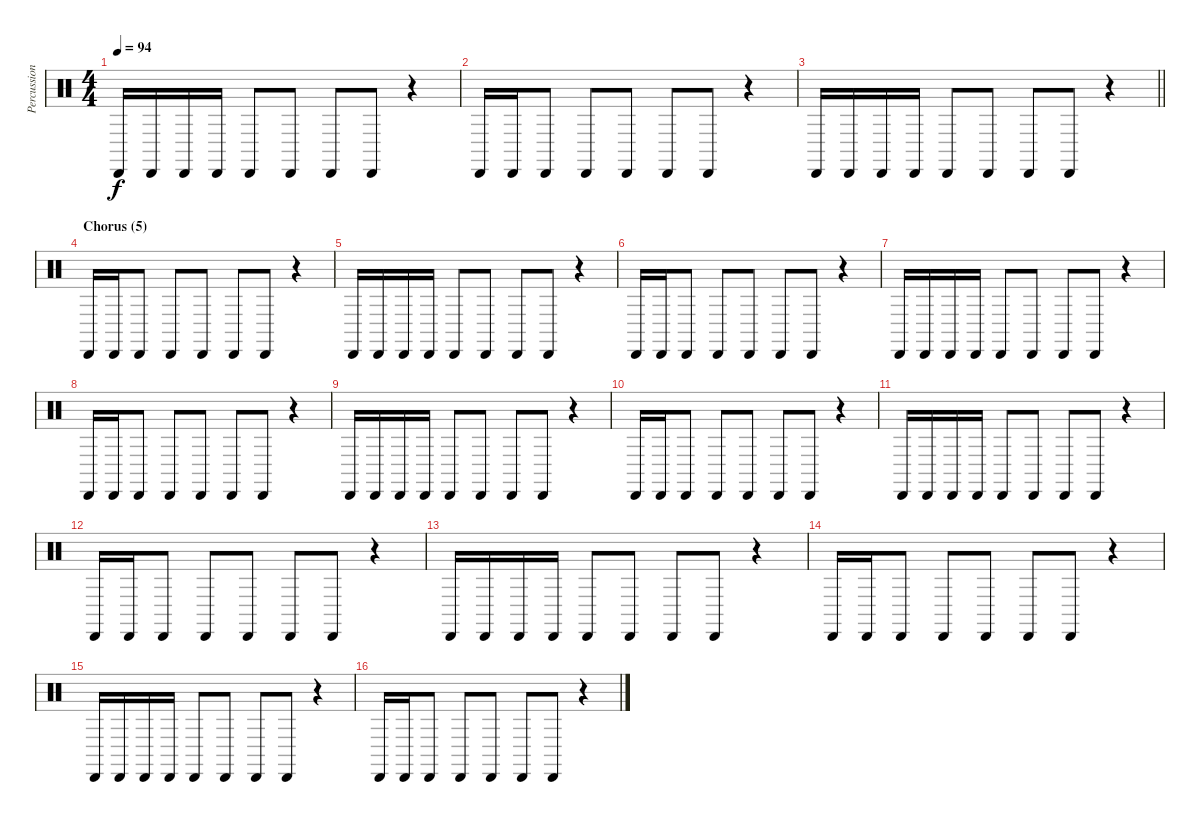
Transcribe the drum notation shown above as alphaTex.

\track ("Percussion" "Percussion") {instrument percussion}
\staff {score}
\articulation defaults
\ts (4 4)
\tempo 94
\clef neutral
\ks aminor "Cabasa (hit)".16{dy f} "Cabasa (hit)".16 "Cabasa (hit)".16 "Cabasa (hit)".16 "Cabasa (hit)".8 "Cabasa (hit)".8 "Cabasa (hit)".8 "Cabasa (hit)".8
r.4 |
"Cabasa (hit)".16 "Cabasa (hit)".16 "Cabasa (hit)".8 "Cabasa (hit)".8 "Cabasa (hit)".8 "Cabasa (hit)".8 "Cabasa (hit)".8 r.4 |
\barLineRight lightlight "Cabasa (hit)".16 "Cabasa (hit)".16 "Cabasa (hit)".16 "Cabasa (hit)".16 "Cabasa (hit)".8 "Cabasa (hit)".8 "Cabasa (hit)".8 "Cabasa (hit)".8
r.4 |
\section ("" "Chorus (5)")
"Cabasa (hit)".16 "Cabasa (hit)".16 "Cabasa (hit)".8 "Cabasa (hit)".8 "Cabasa (hit)".8 "Cabasa (hit)".8 "Cabasa (hit)".8 r.4 |
"Cabasa (hit)".16 "Cabasa (hit)".16 "Cabasa (hit)".16 "Cabasa (hit)".16 "Cabasa (hit)".8 "Cabasa (hit)".8 "Cabasa (hit)".8 "Cabasa (hit)".8 r.4 |
"Cabasa (hit)".16 "Cabasa (hit)".16 "Cabasa (hit)".8 "Cabasa (hit)".8 "Cabasa (hit)".8 "Cabasa (hit)".8 "Cabasa (hit)".8 r.4 |
"Cabasa (hit)".16 "Cabasa (hit)".16 "Cabasa (hit)".16 "Cabasa (hit)".16 "Cabasa (hit)".8 "Cabasa (hit)".8 "Cabasa (hit)".8 "Cabasa (hit)".8 r.4 |
"Cabasa (hit)".16 "Cabasa (hit)".16 "Cabasa (hit)".8 "Cabasa (hit)".8 "Cabasa (hit)".8 "Cabasa (hit)".8 "Cabasa (hit)".8 r.4 |
"Cabasa (hit)".16 "Cabasa (hit)".16 "Cabasa (hit)".16 "Cabasa (hit)".16 "Cabasa (hit)".8 "Cabasa (hit)".8 "Cabasa (hit)".8 "Cabasa (hit)".8 r.4 |
"Cabasa (hit)".16 "Cabasa (hit)".16 "Cabasa (hit)".8 "Cabasa (hit)".8 "Cabasa (hit)".8 "Cabasa (hit)".8 "Cabasa (hit)".8 r.4 |
"Cabasa (hit)".16 "Cabasa (hit)".16 "Cabasa (hit)".16 "Cabasa (hit)".16 "Cabasa (hit)".8 "Cabasa (hit)".8 "Cabasa (hit)".8 "Cabasa (hit)".8 r.4 |
"Cabasa (hit)".16 "Cabasa (hit)".16 "Cabasa (hit)".8 "Cabasa (hit)".8 "Cabasa (hit)".8 "Cabasa (hit)".8 "Cabasa (hit)".8 r.4 |
"Cabasa (hit)".16 "Cabasa (hit)".16 "Cabasa (hit)".16 "Cabasa (hit)".16 "Cabasa (hit)".8 "Cabasa (hit)".8 "Cabasa (hit)".8 "Cabasa (hit)".8 r.4 |
"Cabasa (hit)".16 "Cabasa (hit)".16 "Cabasa (hit)".8 "Cabasa (hit)".8 "Cabasa (hit)".8 "Cabasa (hit)".8 "Cabasa (hit)".8 r.4 |
"Cabasa (hit)".16 "Cabasa (hit)".16 "Cabasa (hit)".16 "Cabasa (hit)".16 "Cabasa (hit)".8 "Cabasa (hit)".8 "Cabasa (hit)".8 "Cabasa (hit)".8 r.4 |
"Cabasa (hit)".16 "Cabasa (hit)".16 "Cabasa (hit)".8 "Cabasa (hit)".8 "Cabasa (hit)".8 "Cabasa (hit)".8 "Cabasa (hit)".8 r.4
